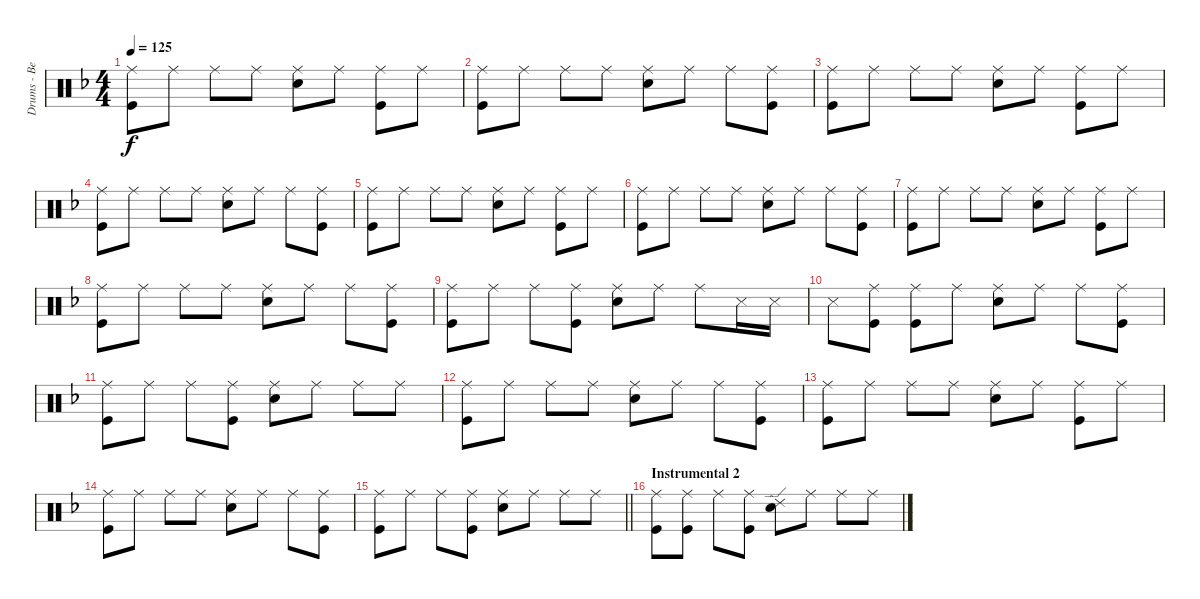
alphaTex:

\track ("Drums - Ben Johnston" "Drums - Be") {instrument percussion}
\staff {score}
\articulation defaults
\ts (4 4)
\tempo 125
\clef neutral
\ks dminor
("Ride (middle)" "Kick (hit)").8{dy f} "Ride (middle)".8 "Ride (middle)".8 "Ride (middle)".8 ("Ride (middle)" "Snare (hit) 2").8 "Ride (middle)".8 ("Ride (middle)" "Kick (hit)").8 "Ride (middle)".8 |
("Ride (middle)" "Kick (hit)").8 "Ride (middle)".8 "Ride (middle)".8 "Ride (middle)".8 ("Ride (middle)" "Snare (hit) 2").8 "Ride (middle)".8 "Ride (middle)".8 ("Ride (middle)" "Kick (hit)").8 |
("Ride (middle)" "Kick (hit)").8 "Ride (middle)".8 "Ride (middle)".8 "Ride (middle)".8 ("Ride (middle)" "Snare (hit) 2").8 "Ride (middle)".8 ("Ride (middle)" "Kick (hit)").8 "Ride (middle)".8 |
("Ride (middle)" "Kick (hit)").8 "Ride (middle)".8 "Ride (middle)".8 "Ride (middle)".8 ("Ride (middle)" "Snare (hit) 2").8 "Ride (middle)".8 "Ride (middle)".8 ("Ride (middle)" "Kick (hit)").8 |
("Ride (middle)" "Kick (hit)").8 "Ride (middle)".8 "Ride (middle)".8 "Ride (middle)".8 ("Ride (middle)" "Snare (hit) 2").8 "Ride (middle)".8 ("Ride (middle)" "Kick (hit)").8 "Ride (middle)".8 |
("Ride (middle)" "Kick (hit)").8 "Ride (middle)".8 "Ride (middle)".8 "Ride (middle)".8 ("Ride (middle)" "Snare (hit) 2").8 "Ride (middle)".8 "Ride (middle)".8 ("Ride (middle)" "Kick (hit)").8 |
("Ride (middle)" "Kick (hit)").8 "Ride (middle)".8 "Ride (middle)".8 "Ride (middle)".8 ("Ride (middle)" "Snare (hit) 2").8 "Ride (middle)".8 ("Ride (middle)" "Kick (hit)").8 "Ride (middle)".8 |
("Ride (middle)" "Kick (hit)").8 "Ride (middle)".8 "Ride (middle)".8 "Ride (middle)".8 ("Ride (middle)" "Snare (hit) 2").8 "Ride (middle)".8 "Ride (middle)".8 ("Ride (middle)" "Kick (hit)").8 |
("Ride (middle)" "Kick (hit)").8 "Ride (middle)".8 "Ride (middle)".8 ("Ride (middle)" "Kick (hit)").8 ("Ride (middle)" "Snare (hit) 2").8 "Ride (middle)".8 "Ride (middle)".8 "Snare (side stick) 3".16 "Snare (side stick) 3".16 |
"Snare (side stick) 3".8 ("Ride (middle)" "Kick (hit)").8 ("Ride (middle)" "Kick (hit)").8 "Ride (middle)".8 ("Ride (middle)" "Snare (hit) 2").8 "Ride (middle)".8 "Ride (middle)".8 ("Ride (middle)" "Kick (hit)").8 |
("Ride (middle)" "Kick (hit)").8 "Ride (middle)".8 "Ride (middle)".8 ("Ride (middle)" "Kick (hit)").8 ("Ride (middle)" "Snare (hit) 2").8 "Ride (middle)".8 "Ride (middle)".8 "Ride (middle)".8 |
("Ride (middle)" "Kick (hit)").8 "Ride (middle)".8 "Ride (middle)".8 "Ride (middle)".8 ("Ride (middle)" "Snare (hit) 2").8 "Ride (middle)".8 "Ride (middle)".8 ("Ride (middle)" "Kick (hit)").8 |
("Ride (middle)" "Kick (hit)").8 "Ride (middle)".8 "Ride (middle)".8 "Ride (middle)".8 ("Ride (middle)" "Snare (hit) 2").8 "Ride (middle)".8 ("Ride (middle)" "Kick (hit)").8 "Ride (middle)".8 |
("Ride (middle)" "Kick (hit)").8 "Ride (middle)".8 "Ride (middle)".8 "Ride (middle)".8 ("Ride (middle)" "Snare (hit) 2").8 "Ride (middle)".8 "Ride (middle)".8 ("Ride (middle)" "Kick (hit)").8 |
\barLineRight lightlight
("Ride (middle)" "Kick (hit)").8 "Ride (middle)".8 "Ride (middle)".8 ("Ride (middle)" "Kick (hit)").8 ("Ride (middle)" "Snare (hit) 2").8 "Ride (middle)".8 "Ride (middle)".8 "Ride (middle)".8 |
\section ("" "Instrumental 2")
("Ride (middle)" "Kick (hit)").8 ("Ride (middle)" "Kick (hit)").8 "Ride (middle)".8 ("Ride (middle)" "Kick (hit)").8 ("Ride (edge) 2" "Snare (hit) 2").8 "Ride (middle)".8 "Ride (middle)".8 "Ride (middle)".8
